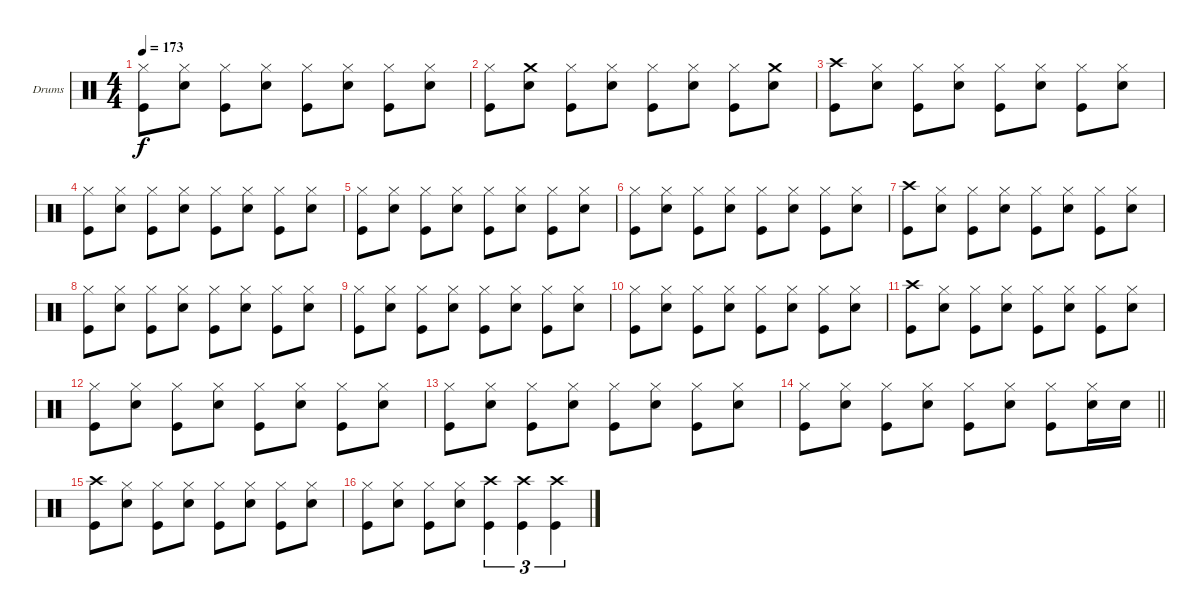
\bracketExtendMode groupsimilarinstruments
\firstSystemTrackNameOrientation horizontal
\otherSystemsTrackNameOrientation horizontal
\track ("Drums" "Drums") {instrument percussion}
\staff {score}
\articulation defaults
\ts (4 4)
\tempo 173
\clef neutral
\ks c
("Hi-Hat (closed)" "Kick (hit)").8{dy f} ("Hi-Hat (closed)" "Snare (hit) 2").8 ("Hi-Hat (closed)" "Kick (hit)").8 ("Hi-Hat (closed)" "Snare (hit) 2").8 ("Hi-Hat (closed)" "Kick (hit)").8 ("Hi-Hat (closed)" "Snare (hit) 2").8 ("Hi-Hat (closed)" "Kick (hit)").8 ("Hi-Hat (closed)" "Snare (hit) 2").8 |
("Hi-Hat (closed)" "Kick (hit)").8 ("Snare (hit) 2" "Crash medium (hit)").8 ("Hi-Hat (closed)" "Kick (hit)").8 ("Hi-Hat (closed)" "Snare (hit) 2").8 ("Hi-Hat (closed)" "Kick (hit)").8 ("Hi-Hat (closed)" "Snare (hit) 2").8 ("Hi-Hat (closed)" "Kick (hit)").8 ("Snare (hit) 2" "Crash medium (hit)").8 |
("Crash high (hit)" "Kick (hit)").8 ("Hi-Hat (closed)" "Snare (hit) 2").8 ("Hi-Hat (closed)" "Kick (hit)").8 ("Hi-Hat (closed)" "Snare (hit) 2").8 ("Hi-Hat (closed)" "Kick (hit)").8 ("Hi-Hat (closed)" "Snare (hit) 2").8 ("Hi-Hat (closed)" "Kick (hit)").8 ("Hi-Hat (closed)" "Snare (hit) 2").8 |
("Hi-Hat (closed)" "Kick (hit)").8 ("Hi-Hat (closed)" "Snare (hit) 2").8 ("Hi-Hat (closed)" "Kick (hit)").8 ("Hi-Hat (closed)" "Snare (hit) 2").8 ("Hi-Hat (closed)" "Kick (hit)").8 ("Hi-Hat (closed)" "Snare (hit) 2").8 ("Hi-Hat (closed)" "Kick (hit)").8 ("Hi-Hat (closed)" "Snare (hit) 2").8 |
("Hi-Hat (closed)" "Kick (hit)").8 ("Hi-Hat (closed)" "Snare (hit) 2").8 ("Hi-Hat (closed)" "Kick (hit)").8 ("Hi-Hat (closed)" "Snare (hit) 2").8 ("Hi-Hat (closed)" "Kick (hit)").8 ("Hi-Hat (closed)" "Snare (hit) 2").8 ("Hi-Hat (closed)" "Kick (hit)").8 ("Hi-Hat (closed)" "Snare (hit) 2").8 |
("Hi-Hat (closed)" "Kick (hit)").8 ("Hi-Hat (closed)" "Snare (hit) 2").8 ("Hi-Hat (closed)" "Kick (hit)").8 ("Hi-Hat (closed)" "Snare (hit) 2").8 ("Hi-Hat (closed)" "Kick (hit)").8 ("Hi-Hat (closed)" "Snare (hit) 2").8 ("Hi-Hat (closed)" "Kick (hit)").8 ("Hi-Hat (closed)" "Snare (hit) 2").8 |
("Crash high (hit)" "Kick (hit)").8 ("Hi-Hat (closed)" "Snare (hit) 2").8 ("Hi-Hat (closed)" "Kick (hit)").8 ("Hi-Hat (closed)" "Snare (hit) 2").8 ("Hi-Hat (closed)" "Kick (hit)").8 ("Hi-Hat (closed)" "Snare (hit) 2").8 ("Hi-Hat (closed)" "Kick (hit)").8 ("Hi-Hat (closed)" "Snare (hit) 2").8 |
("Hi-Hat (closed)" "Kick (hit)").8 ("Hi-Hat (closed)" "Snare (hit) 2").8 ("Hi-Hat (closed)" "Kick (hit)").8 ("Hi-Hat (closed)" "Snare (hit) 2").8 ("Hi-Hat (closed)" "Kick (hit)").8 ("Hi-Hat (closed)" "Snare (hit) 2").8 ("Hi-Hat (closed)" "Kick (hit)").8 ("Hi-Hat (closed)" "Snare (hit) 2").8 |
("Hi-Hat (closed)" "Kick (hit)").8 ("Hi-Hat (closed)" "Snare (hit) 2").8 ("Hi-Hat (closed)" "Kick (hit)").8 ("Hi-Hat (closed)" "Snare (hit) 2").8 ("Hi-Hat (closed)" "Kick (hit)").8 ("Hi-Hat (closed)" "Snare (hit) 2").8 ("Hi-Hat (closed)" "Kick (hit)").8 ("Hi-Hat (closed)" "Snare (hit) 2").8 |
("Hi-Hat (closed)" "Kick (hit)").8 ("Hi-Hat (closed)" "Snare (hit) 2").8 ("Hi-Hat (closed)" "Kick (hit)").8 ("Hi-Hat (closed)" "Snare (hit) 2").8 ("Hi-Hat (closed)" "Kick (hit)").8 ("Hi-Hat (closed)" "Snare (hit) 2").8 ("Hi-Hat (closed)" "Kick (hit)").8 ("Hi-Hat (closed)" "Snare (hit) 2").8 |
("Crash high (hit)" "Kick (hit)").8 ("Hi-Hat (closed)" "Snare (hit) 2").8 ("Hi-Hat (closed)" "Kick (hit)").8 ("Hi-Hat (closed)" "Snare (hit) 2").8 ("Hi-Hat (closed)" "Kick (hit)").8 ("Hi-Hat (closed)" "Snare (hit) 2").8 ("Hi-Hat (closed)" "Kick (hit)").8 ("Hi-Hat (closed)" "Snare (hit) 2").8 |
("Hi-Hat (closed)" "Kick (hit)").8 ("Hi-Hat (closed)" "Snare (hit) 2").8 ("Hi-Hat (closed)" "Kick (hit)").8 ("Hi-Hat (closed)" "Snare (hit) 2").8 ("Hi-Hat (closed)" "Kick (hit)").8 ("Hi-Hat (closed)" "Snare (hit) 2").8 ("Hi-Hat (closed)" "Kick (hit)").8 ("Hi-Hat (closed)" "Snare (hit) 2").8 |
("Hi-Hat (closed)" "Kick (hit)").8 ("Hi-Hat (closed)" "Snare (hit) 2").8 ("Hi-Hat (closed)" "Kick (hit)").8 ("Hi-Hat (closed)" "Snare (hit) 2").8 ("Hi-Hat (closed)" "Kick (hit)").8 ("Hi-Hat (closed)" "Snare (hit) 2").8 ("Hi-Hat (closed)" "Kick (hit)").8 ("Hi-Hat (closed)" "Snare (hit) 2").8 |
\barLineRight lightlight
("Hi-Hat (closed)" "Kick (hit)").8 ("Hi-Hat (closed)" "Snare (hit) 2").8 ("Hi-Hat (closed)" "Kick (hit)").8 ("Hi-Hat (closed)" "Snare (hit) 2").8 ("Hi-Hat (closed)" "Kick (hit)").8 ("Hi-Hat (closed)" "Snare (hit) 2").8 ("Hi-Hat (closed)" "Kick (hit)").8 ("Hi-Hat (closed)" "Snare (hit) 2").16 "Snare (hit) 2".16 |
("Crash high (hit)" "Kick (hit)").8 ("Hi-Hat (closed)" "Snare (hit) 2").8 ("Hi-Hat (closed)" "Kick (hit)").8 ("Hi-Hat (closed)" "Snare (hit) 2").8 ("Hi-Hat (closed)" "Kick (hit)").8 ("Hi-Hat (closed)" "Snare (hit) 2").8 ("Hi-Hat (closed)" "Kick (hit)").8 ("Hi-Hat (closed)" "Snare (hit) 2").8 |
("Hi-Hat (closed)" "Kick (hit)").8 ("Hi-Hat (closed)" "Snare (hit) 2").8 ("Hi-Hat (closed)" "Kick (hit)").8 ("Hi-Hat (closed)" "Snare (hit) 2").8 ("Crash high (hit)" "Kick (hit)").4{tu (3 2)} ("Crash high (hit)" "Kick (hit)").4{tu (3 2)} ("Crash high (hit)" "Kick (hit)").4{tu (3 2)}
